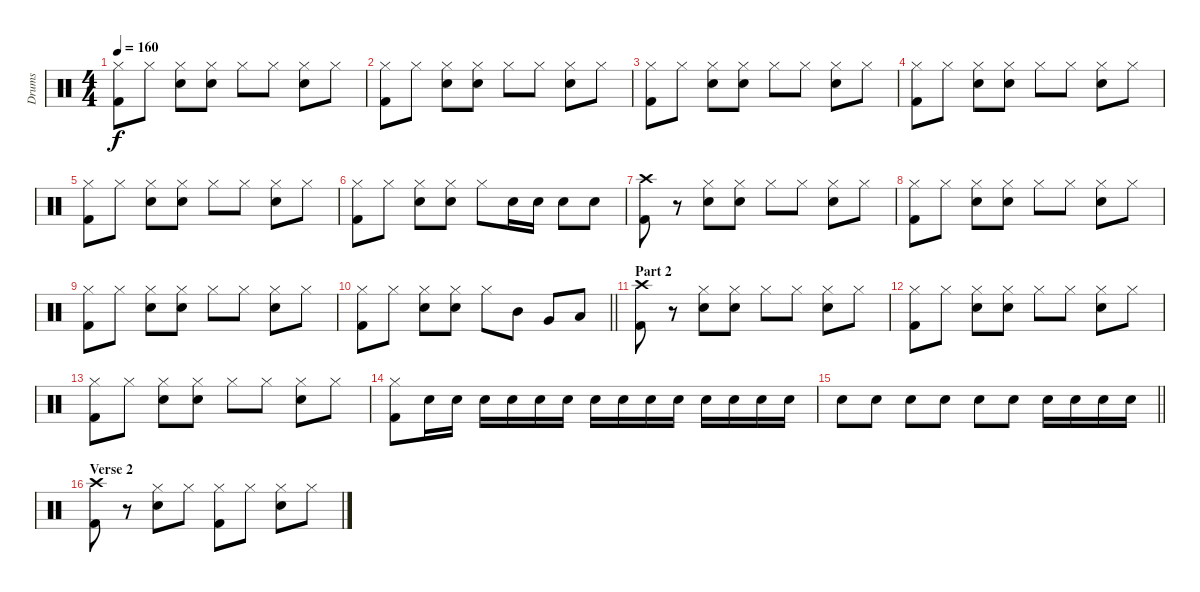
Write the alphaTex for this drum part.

\track ("Drums" "Drums") {instrument percussion}
\staff {score}
\articulation defaults
\ts (4 4)
\tempo 160
\clef neutral
\ks c
("Hi-Hat (closed)" "Kick (hit) 2").8{dy f} "Hi-Hat (closed)".8 ("Hi-Hat (closed)" "Electric Snare (hit)").8 ("Hi-Hat (closed)" "Electric Snare (hit)").8 "Hi-Hat (closed)".8 "Hi-Hat (closed)".8 ("Hi-Hat (closed)" "Electric Snare (hit)").8 "Hi-Hat (closed)".8 |
("Hi-Hat (closed)" "Kick (hit) 2").8 "Hi-Hat (closed)".8 ("Hi-Hat (closed)" "Electric Snare (hit)").8 ("Hi-Hat (closed)" "Electric Snare (hit)").8 "Hi-Hat (closed)".8 "Hi-Hat (closed)".8 ("Hi-Hat (closed)" "Electric Snare (hit)").8 "Hi-Hat (closed)".8 |
("Hi-Hat (closed)" "Kick (hit) 2").8 "Hi-Hat (closed)".8 ("Hi-Hat (closed)" "Electric Snare (hit)").8 ("Hi-Hat (closed)" "Electric Snare (hit)").8 "Hi-Hat (closed)".8 "Hi-Hat (closed)".8 ("Hi-Hat (closed)" "Electric Snare (hit)").8 "Hi-Hat (closed)".8 |
("Hi-Hat (closed)" "Kick (hit) 2").8 "Hi-Hat (closed)".8 ("Hi-Hat (closed)" "Electric Snare (hit)").8 ("Hi-Hat (closed)" "Electric Snare (hit)").8 "Hi-Hat (closed)".8 "Hi-Hat (closed)".8 ("Hi-Hat (closed)" "Electric Snare (hit)").8 "Hi-Hat (closed)".8 |
("Hi-Hat (closed)" "Kick (hit) 2").8 "Hi-Hat (closed)".8 ("Hi-Hat (closed)" "Electric Snare (hit)").8 ("Hi-Hat (closed)" "Electric Snare (hit)").8 "Hi-Hat (closed)".8 "Hi-Hat (closed)".8 ("Hi-Hat (closed)" "Electric Snare (hit)").8 "Hi-Hat (closed)".8 |
("Hi-Hat (closed)" "Kick (hit) 2").8 "Hi-Hat (closed)".8 ("Hi-Hat (closed)" "Electric Snare (hit)").8 ("Hi-Hat (closed)" "Electric Snare (hit)").8 "Hi-Hat (closed)".8 "Electric Snare (hit)".16 "Electric Snare (hit)".16 "Electric Snare (hit)".8 "Electric Snare (hit)".8 |
("Crash high (hit)" "Kick (hit) 2").8 r.8 ("Hi-Hat (closed)" "Electric Snare (hit)").8 ("Hi-Hat (closed)" "Electric Snare (hit)").8 "Hi-Hat (closed)".8 "Hi-Hat (closed)".8 ("Hi-Hat (closed)" "Electric Snare (hit)").8 "Hi-Hat (closed)".8 |
("Hi-Hat (closed)" "Kick (hit) 2").8 "Hi-Hat (closed)".8 ("Hi-Hat (closed)" "Electric Snare (hit)").8 ("Hi-Hat (closed)" "Electric Snare (hit)").8 "Hi-Hat (closed)".8 "Hi-Hat (closed)".8 ("Hi-Hat (closed)" "Electric Snare (hit)").8 "Hi-Hat (closed)".8 |
("Hi-Hat (closed)" "Kick (hit) 2").8 "Hi-Hat (closed)".8 ("Hi-Hat (closed)" "Electric Snare (hit)").8 ("Hi-Hat (closed)" "Electric Snare (hit)").8 "Hi-Hat (closed)".8 "Hi-Hat (closed)".8 ("Hi-Hat (closed)" "Electric Snare (hit)").8 "Hi-Hat (closed)".8 |
\barLineRight lightlight
("Hi-Hat (closed)" "Kick (hit) 2").8 "Hi-Hat (closed)".8 ("Hi-Hat (closed)" "Electric Snare (hit)").8 ("Hi-Hat (closed)" "Electric Snare (hit)").8 "Hi-Hat (closed)".8 "Mid Tom (hit)".8 "Very Low Tom (hit)".8 "Low Tom (hit)".8 |
\section ("" "Part 2")
("Crash high (hit)" "Kick (hit) 2").8 r.8 ("Hi-Hat (closed)" "Electric Snare (hit)").8 ("Hi-Hat (closed)" "Electric Snare (hit)").8 "Hi-Hat (closed)".8 "Hi-Hat (closed)".8 ("Hi-Hat (closed)" "Electric Snare (hit)").8 "Hi-Hat (closed)".8 |
("Hi-Hat (closed)" "Kick (hit) 2").8 "Hi-Hat (closed)".8 ("Hi-Hat (closed)" "Electric Snare (hit)").8 ("Hi-Hat (closed)" "Electric Snare (hit)").8 "Hi-Hat (closed)".8 "Hi-Hat (closed)".8 ("Hi-Hat (closed)" "Electric Snare (hit)").8 "Hi-Hat (closed)".8 |
("Hi-Hat (closed)" "Kick (hit) 2").8 "Hi-Hat (closed)".8 ("Hi-Hat (closed)" "Electric Snare (hit)").8 ("Hi-Hat (closed)" "Electric Snare (hit)").8 "Hi-Hat (closed)".8 "Hi-Hat (closed)".8 ("Hi-Hat (closed)" "Electric Snare (hit)").8 "Hi-Hat (closed)".8 |
("Hi-Hat (closed)" "Kick (hit) 2").8 "Electric Snare (hit)".16{volume 4} "Electric Snare (hit)".16{volume 14} "Electric Snare (hit)".16 "Electric Snare (hit)".16 "Electric Snare (hit)".16 "Electric Snare (hit)".16 "Electric Snare (hit)".16 "Electric Snare (hit)".16 "Electric Snare (hit)".16 "Electric Snare (hit)".16 "Electric Snare (hit)".16 "Electric Snare (hit)".16 "Electric Snare (hit)".16 "Electric Snare (hit)".16 |
\barLineRight lightlight "Electric Snare (hit)".8 "Electric Snare (hit)".8 "Electric Snare (hit)".8 "Electric Snare (hit)".8 "Electric Snare (hit)".8 "Electric Snare (hit)".8 "Electric Snare (hit)".16 "Electric Snare (hit)".16 "Electric Snare (hit)".16 "Electric Snare (hit)".16
|
\section ("" "Verse 2")
("Crash high (hit)" "Kick (hit) 2").8 r.8 ("Hi-Hat (closed)" "Electric Snare (hit)").8 "Hi-Hat (closed)".8 ("Hi-Hat (closed)" "Kick (hit) 2").8 "Hi-Hat (closed)".8 ("Hi-Hat (closed)" "Electric Snare (hit)").8 "Hi-Hat (closed)".8
